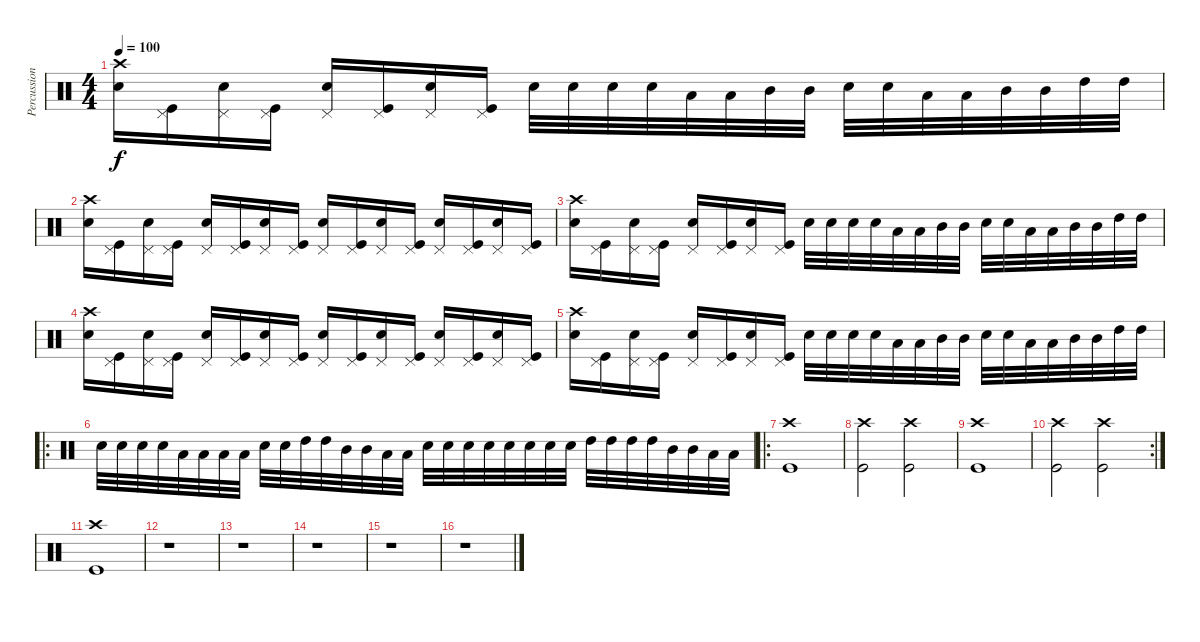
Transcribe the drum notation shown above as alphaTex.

\track ("Percussion" "Percussion") {instrument percussion}
\staff {score}
\articulation defaults
\ts (4 4)
\tempo 100
\clef neutral
\ks c
("Crash high (hit)" "Electric Snare (hit)").16{dy f} ("Pedal Hi-Hat (hit)" "Kick (hit)").16 ("Pedal Hi-Hat (hit)" "Electric Snare (hit)").16 ("Pedal Hi-Hat (hit)" "Kick (hit)").16 ("Pedal Hi-Hat (hit)" "Electric Snare (hit)").16 ("Pedal Hi-Hat (hit)" "Kick (hit)").16 ("Pedal Hi-Hat (hit)" "Electric Snare (hit)").16 ("Pedal Hi-Hat (hit)" "Kick (hit)").16 "Electric Snare (hit)".32 "Electric Snare (hit)".32 "Electric Snare (hit)".32 "Electric Snare (hit)".32 "Low Tom (hit)".32 "Low Tom (hit)".32 "Mid Tom (hit)".32 "Mid Tom (hit)".32 "Electric Snare (hit)".32 "Electric Snare (hit)".32 "Low Tom (hit)".32 "Low Tom (hit)".32 "Mid Tom (hit)".32 "Mid Tom (hit)".32 "High Tom (hit)".32 "High Tom (hit)".32 |
("Crash high (hit)" "Electric Snare (hit)").16 ("Pedal Hi-Hat (hit)" "Kick (hit)").16 ("Pedal Hi-Hat (hit)" "Electric Snare (hit)").16 ("Pedal Hi-Hat (hit)" "Kick (hit)").16 ("Pedal Hi-Hat (hit)" "Electric Snare (hit)").16 ("Pedal Hi-Hat (hit)" "Kick (hit)").16 ("Pedal Hi-Hat (hit)" "Electric Snare (hit)").16 ("Pedal Hi-Hat (hit)" "Kick (hit)").16 ("Pedal Hi-Hat (hit)" "Electric Snare (hit)").16 ("Pedal Hi-Hat (hit)" "Kick (hit)").16 ("Pedal Hi-Hat (hit)" "Electric Snare (hit)").16 ("Pedal Hi-Hat (hit)" "Kick (hit)").16 ("Pedal Hi-Hat (hit)" "Electric Snare (hit)").16 ("Pedal Hi-Hat (hit)" "Kick (hit)").16 ("Pedal Hi-Hat (hit)" "Electric Snare (hit)").16 ("Pedal Hi-Hat (hit)" "Kick (hit)").16 |
("Crash high (hit)" "Electric Snare (hit)").16 ("Pedal Hi-Hat (hit)" "Kick (hit)").16 ("Pedal Hi-Hat (hit)" "Electric Snare (hit)").16 ("Pedal Hi-Hat (hit)" "Kick (hit)").16 ("Pedal Hi-Hat (hit)" "Electric Snare (hit)").16 ("Pedal Hi-Hat (hit)" "Kick (hit)").16 ("Pedal Hi-Hat (hit)" "Electric Snare (hit)").16 ("Pedal Hi-Hat (hit)" "Kick (hit)").16 "Electric Snare (hit)".32 "Electric Snare (hit)".32 "Electric Snare (hit)".32 "Electric Snare (hit)".32 "Low Tom (hit)".32 "Low Tom (hit)".32 "Mid Tom (hit)".32 "Mid Tom (hit)".32 "Electric Snare (hit)".32 "Electric Snare (hit)".32 "Low Tom (hit)".32 "Low Tom (hit)".32 "Mid Tom (hit)".32 "Mid Tom (hit)".32 "High Tom (hit)".32 "High Tom (hit)".32 |
("Crash high (hit)" "Electric Snare (hit)").16 ("Pedal Hi-Hat (hit)" "Kick (hit)").16 ("Pedal Hi-Hat (hit)" "Electric Snare (hit)").16 ("Pedal Hi-Hat (hit)" "Kick (hit)").16 ("Pedal Hi-Hat (hit)" "Electric Snare (hit)").16 ("Pedal Hi-Hat (hit)" "Kick (hit)").16 ("Pedal Hi-Hat (hit)" "Electric Snare (hit)").16 ("Pedal Hi-Hat (hit)" "Kick (hit)").16 ("Pedal Hi-Hat (hit)" "Electric Snare (hit)").16 ("Pedal Hi-Hat (hit)" "Kick (hit)").16 ("Pedal Hi-Hat (hit)" "Electric Snare (hit)").16 ("Pedal Hi-Hat (hit)" "Kick (hit)").16 ("Pedal Hi-Hat (hit)" "Electric Snare (hit)").16 ("Pedal Hi-Hat (hit)" "Kick (hit)").16 ("Pedal Hi-Hat (hit)" "Electric Snare (hit)").16 ("Pedal Hi-Hat (hit)" "Kick (hit)").16 |
("Crash high (hit)" "Electric Snare (hit)").16 ("Pedal Hi-Hat (hit)" "Kick (hit)").16 ("Pedal Hi-Hat (hit)" "Electric Snare (hit)").16 ("Pedal Hi-Hat (hit)" "Kick (hit)").16 ("Pedal Hi-Hat (hit)" "Electric Snare (hit)").16 ("Pedal Hi-Hat (hit)" "Kick (hit)").16 ("Pedal Hi-Hat (hit)" "Electric Snare (hit)").16 ("Pedal Hi-Hat (hit)" "Kick (hit)").16 "Electric Snare (hit)".32 "Electric Snare (hit)".32 "Electric Snare (hit)".32 "Electric Snare (hit)".32 "Low Tom (hit)".32 "Low Tom (hit)".32 "Mid Tom (hit)".32 "Mid Tom (hit)".32 "Electric Snare (hit)".32 "Electric Snare (hit)".32 "Low Tom (hit)".32 "Low Tom (hit)".32 "Mid Tom (hit)".32 "Mid Tom (hit)".32 "High Tom (hit)".32 "High Tom (hit)".32 |
\ro "Electric Snare (hit)".32 "Electric Snare (hit)".32 "Electric Snare (hit)".32 "Electric Snare (hit)".32 "Low Tom (hit)".32 "Low Tom (hit)".32 "Low Tom (hit)".32 "Low Tom (hit)".32 "Electric Snare (hit)".32 "Electric Snare (hit)".32 "High Tom (hit)".32 "High Tom (hit)".32 "Mid Tom (hit)".32 "Mid Tom (hit)".32 "Low Tom (hit)".32 "Low Tom (hit)".32 "Electric Snare (hit)".32 "Electric Snare (hit)".32 "Electric Snare (hit)".32 "Electric Snare (hit)".32 "Electric Snare (hit)".32 "Electric Snare (hit)".32 "Electric Snare (hit)".32 "Electric Snare (hit)".32 "High Tom (hit)".32 "High Tom (hit)".32 "High Tom (hit)".32 "High Tom (hit)".32 "Mid Tom (hit)".32 "Mid Tom (hit)".32 "Low Tom (hit)".32 "Low Tom (hit)".32
|
\ro
("Crash high (hit)" "Kick (hit)").1 |
("Crash high (hit)" "Kick (hit)").2 ("Crash high (hit)" "Kick (hit)").2 |
("Crash high (hit)" "Kick (hit)").1 |
\rc 2
("Crash high (hit)" "Kick (hit)").2 ("Crash high (hit)" "Kick (hit)").2 |
("Crash high (hit)" "Kick (hit)").1 |
r.1 |
r.1 |
r.1 |
r.1 |
r.1
